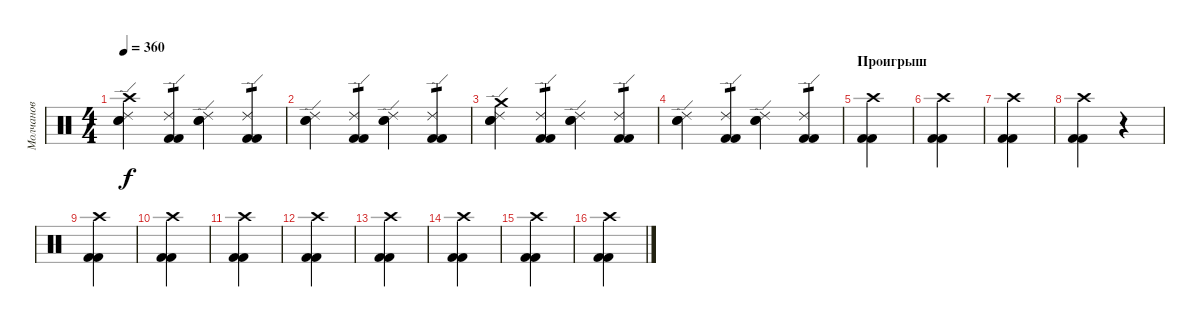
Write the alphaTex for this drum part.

\track ("Молчанов" "Молчанов") {instrument percussion}
\staff {score}
\articulation defaults
\ts (4 4)
\tempo 360
\clef neutral
\ks c
("Ride (edge) 2" "Electric Snare (hit)" "Electric Snare (hit)" "Crash high (hit)").4{dy f} ("Ride (edge) 2" "Kick (hit) 2" "Kick (hit) 2").4{tp 1} ("Ride (edge) 2" "Electric Snare (hit)" "Electric Snare (hit)").4 ("Ride (edge) 2" "Kick (hit) 2" "Kick (hit) 2").4{tp 1} |
("Ride (edge) 2" "Electric Snare (hit)" "Electric Snare (hit)").4 ("Ride (edge) 2" "Kick (hit) 2" "Kick (hit) 2").4{tp 1} ("Ride (edge) 2" "Electric Snare (hit)" "Electric Snare (hit)").4 ("Ride (edge) 2" "Kick (hit) 2" "Kick (hit) 2").4{tp 1} |
("Ride (edge) 2" "Electric Snare (hit)" "Electric Snare (hit)" "Crash medium (hit)").4 ("Ride (edge) 2" "Kick (hit) 2" "Kick (hit) 2").4{tp 1} ("Ride (edge) 2" "Electric Snare (hit)" "Electric Snare (hit)").4 ("Ride (edge) 2" "Kick (hit) 2" "Kick (hit) 2").4{tp 1} |
("Ride (edge) 2" "Electric Snare (hit)" "Electric Snare (hit)").4 ("Ride (edge) 2" "Kick (hit) 2" "Kick (hit) 2").4{tp 1} ("Ride (edge) 2" "Electric Snare (hit)" "Electric Snare (hit)").4 ("Ride (edge) 2" "Kick (hit) 2" "Kick (hit) 2").4{tp 1} |
\section ("" "Проигрыш")
("Kick (hit) 2" "Kick (hit) 2" "Crash high (hit)").4 |
("Kick (hit) 2" "Kick (hit) 2" "Crash high (hit)").4 |
("Kick (hit) 2" "Kick (hit) 2" "Crash high (hit)").4 |
("Kick (hit) 2" "Kick (hit) 2" "Crash high (hit)").4 r.4 |
("Kick (hit) 2" "Kick (hit) 2" "Crash high (hit)").4 |
("Kick (hit) 2" "Kick (hit) 2" "Crash high (hit)").4 |
("Kick (hit) 2" "Kick (hit) 2" "Crash high (hit)").4 |
("Kick (hit) 2" "Kick (hit) 2" "Crash high (hit)").4 |
("Kick (hit) 2" "Kick (hit) 2" "Crash high (hit)").4 |
("Kick (hit) 2" "Kick (hit) 2" "Crash high (hit)").4 |
("Kick (hit) 2" "Kick (hit) 2" "Crash high (hit)").4 |
("Kick (hit) 2" "Kick (hit) 2" "Crash high (hit)").4
